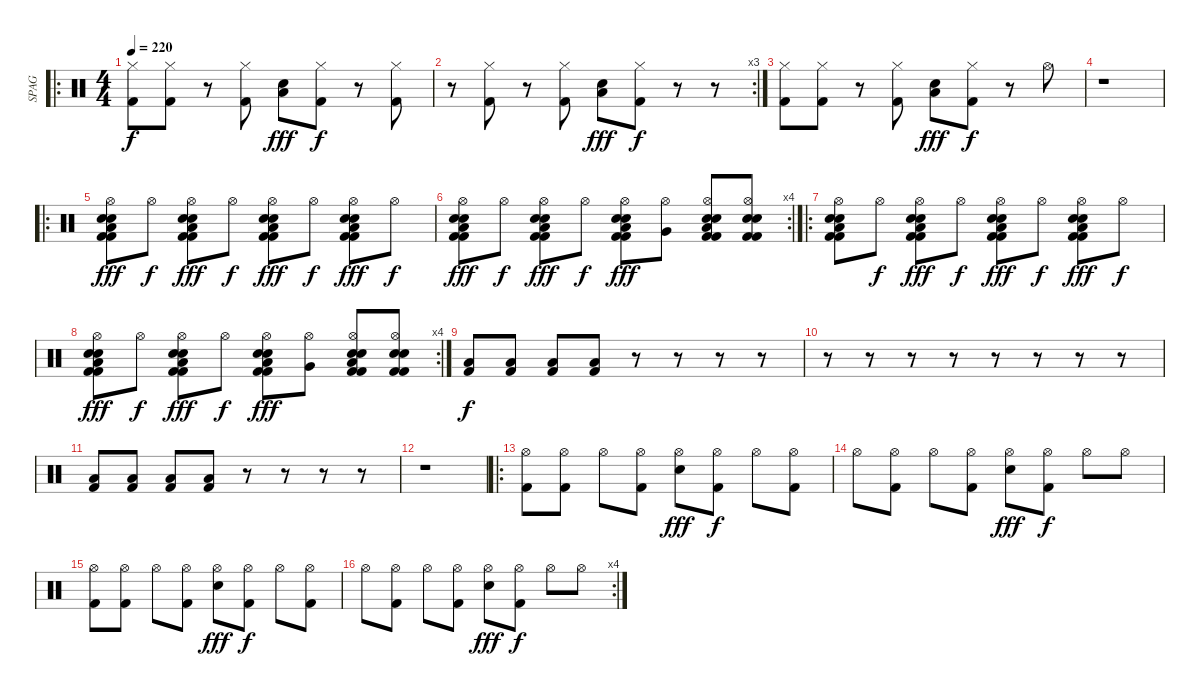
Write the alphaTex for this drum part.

\track ("SPAG" "SPAG") {instrument percussion}
\staff {score}
\articulation defaults
\ro
\ts (4 4)
\tempo 220
\clef neutral
\ks c
("Hi-Hat (closed)" "Kick (hit) 2").8{dy f} ("Hi-Hat (closed)" "Kick (hit) 2").8 r.8 ("Hi-Hat (closed)" "Kick (hit) 2").8 ("Low Floor Tom (hit)" "Snare (hit) 2").8{dy fff} ("Hi-Hat (closed)" "Kick (hit) 2").8{dy f} r.8 ("Hi-Hat (closed)" "Kick (hit) 2").8 |
\rc 3
r.8 ("Hi-Hat (closed)" "Kick (hit) 2").8 r.8 ("Hi-Hat (closed)" "Kick (hit) 2").8 ("Low Floor Tom (hit)" "Snare (hit) 2").8{dy fff} ("Hi-Hat (closed)" "Kick (hit) 2").8{dy f} r.8 r.8 |
("Hi-Hat (closed)" "Kick (hit) 2").8 ("Hi-Hat (closed)" "Kick (hit) 2").8 r.8 ("Hi-Hat (closed)" "Kick (hit) 2").8 ("Low Floor Tom (hit)" "Snare (hit) 2").8{dy fff} ("Hi-Hat (closed)" "Kick (hit) 2").8{dy f} r.8 "Hi-Hat (open)".8 |
r.1 |
\ro
("Kick (hit) 2" "Electric Snare (hit)" "Low Floor Tom (hit)" "Hi-Hat (open)" "Snare (hit) 2" "Kick (hit) 2").8{dy fff} "Hi-Hat (open)".8{dy f} ("Kick (hit) 2" "Electric Snare (hit)" "Low Floor Tom (hit)" "Hi-Hat (open)" "Snare (hit) 2" "Kick (hit) 2").8{dy fff} "Hi-Hat (open)".8{dy f} ("Kick (hit) 2" "Electric Snare (hit)" "Low Floor Tom (hit)" "Hi-Hat (open)" "Snare (hit) 2" "Kick (hit) 2").8{dy fff} "Hi-Hat (open)".8{dy f} ("Kick (hit) 2" "Electric Snare (hit)" "Low Floor Tom (hit)" "Hi-Hat (open)" "Snare (hit) 2" "Kick (hit) 2").8{dy fff} "Hi-Hat (open)".8{dy f} |
\rc 4
("Kick (hit) 2" "Electric Snare (hit)" "Low Floor Tom (hit)" "Hi-Hat (open)" "Snare (hit) 2" "Kick (hit) 2").8{dy fff} "Hi-Hat (open)".8{dy f} ("Kick (hit) 2" "Electric Snare (hit)" "Low Floor Tom (hit)" "Hi-Hat (open)" "Snare (hit) 2" "Kick (hit) 2").8{dy fff} "Hi-Hat (open)".8{dy f} ("Kick (hit) 2" "Electric Snare (hit)" "Low Floor Tom (hit)" "Hi-Hat (open)" "Snare (hit) 2" "Kick (hit) 2").8{dy fff} ("Very Low Tom (hit)" "Hi-Hat (open)").8 ("Kick (hit) 2" "Electric Snare (hit)" "Low Floor Tom (hit)" "Hi-Hat (open)" "Snare (hit) 2" "Kick (hit) 2").8 ("Kick (hit) 2" "Electric Snare (hit)" "Hi-Hat (open)" "Snare (hit) 2" "Kick (hit) 2").8 |
\ro
("Kick (hit) 2" "Electric Snare (hit)" "Low Floor Tom (hit)" "Hi-Hat (open)" "Snare (hit) 2" "Kick (hit) 2").8 "Hi-Hat (open)".8{dy f} ("Kick (hit) 2" "Electric Snare (hit)" "Low Floor Tom (hit)" "Hi-Hat (open)" "Snare (hit) 2" "Kick (hit) 2").8{dy fff} "Hi-Hat (open)".8{dy f} ("Kick (hit) 2" "Electric Snare (hit)" "Low Floor Tom (hit)" "Hi-Hat (open)" "Snare (hit) 2" "Kick (hit) 2").8{dy fff} "Hi-Hat (open)".8{dy f} ("Kick (hit) 2" "Electric Snare (hit)" "Low Floor Tom (hit)" "Hi-Hat (open)" "Snare (hit) 2" "Kick (hit) 2").8{dy fff} "Hi-Hat (open)".8{dy f} |
\rc 4
("Kick (hit) 2" "Electric Snare (hit)" "Low Floor Tom (hit)" "Hi-Hat (open)" "Snare (hit) 2" "Kick (hit) 2").8{dy fff} "Hi-Hat (open)".8{dy f} ("Kick (hit) 2" "Electric Snare (hit)" "Low Floor Tom (hit)" "Hi-Hat (open)" "Snare (hit) 2" "Kick (hit) 2").8{dy fff} "Hi-Hat (open)".8{dy f} ("Kick (hit) 2" "Electric Snare (hit)" "Low Floor Tom (hit)" "Hi-Hat (open)" "Snare (hit) 2" "Kick (hit) 2").8{dy fff} ("Very Low Tom (hit)" "Hi-Hat (open)").8 ("Kick (hit) 2" "Electric Snare (hit)" "Low Floor Tom (hit)" "Hi-Hat (open)" "Snare (hit) 2" "Kick (hit) 2").8 ("Kick (hit) 2" "Electric Snare (hit)" "Hi-Hat (open)" "Snare (hit) 2" "Kick (hit) 2").8 |
("Kick (hit) 2" "Low Floor Tom (hit)").8{dy f} ("Kick (hit) 2" "Low Floor Tom (hit)").8 ("Kick (hit) 2" "Low Floor Tom (hit)").8 ("Kick (hit) 2" "Low Floor Tom (hit)").8 r.8 r.8 r.8 r.8 |
r.8 r.8 r.8 r.8 r.8 r.8 r.8 r.8 |
("Kick (hit) 2" "Low Floor Tom (hit)").8 ("Kick (hit) 2" "Low Floor Tom (hit)").8 ("Kick (hit) 2" "Low Floor Tom (hit)").8 ("Kick (hit) 2" "Low Floor Tom (hit)").8 r.8 r.8 r.8 r.8 |
r.1 |
\ro
("Hi-Hat (open)" "Kick (hit) 2").8 ("Hi-Hat (open)" "Kick (hit) 2").8 "Hi-Hat (open)".8 ("Hi-Hat (open)" "Kick (hit) 2").8 ("Hi-Hat (open)" "Snare (hit) 2").8{dy fff} ("Hi-Hat (open)" "Kick (hit) 2").8{dy f} "Hi-Hat (open)".8 ("Hi-Hat (open)" "Kick (hit) 2").8 |
"Hi-Hat (open)".8 ("Hi-Hat (open)" "Kick (hit) 2").8 "Hi-Hat (open)".8 ("Hi-Hat (open)" "Kick (hit) 2").8 ("Hi-Hat (open)" "Snare (hit) 2").8{dy fff} ("Hi-Hat (open)" "Kick (hit) 2").8{dy f} "Hi-Hat (open)".8 "Hi-Hat (open)".8 |
("Hi-Hat (open)" "Kick (hit) 2").8 ("Hi-Hat (open)" "Kick (hit) 2").8 "Hi-Hat (open)".8 ("Hi-Hat (open)" "Kick (hit) 2").8 ("Hi-Hat (open)" "Snare (hit) 2").8{dy fff} ("Hi-Hat (open)" "Kick (hit) 2").8{dy f} "Hi-Hat (open)".8 ("Hi-Hat (open)" "Kick (hit) 2").8 |
\rc 4 "Hi-Hat (open)".8
("Hi-Hat (open)" "Kick (hit) 2").8 "Hi-Hat (open)".8 ("Hi-Hat (open)" "Kick (hit) 2").8 ("Hi-Hat (open)" "Snare (hit) 2").8{dy fff} ("Hi-Hat (open)" "Kick (hit) 2").8{dy f} "Hi-Hat (open)".8 "Hi-Hat (open)".8
